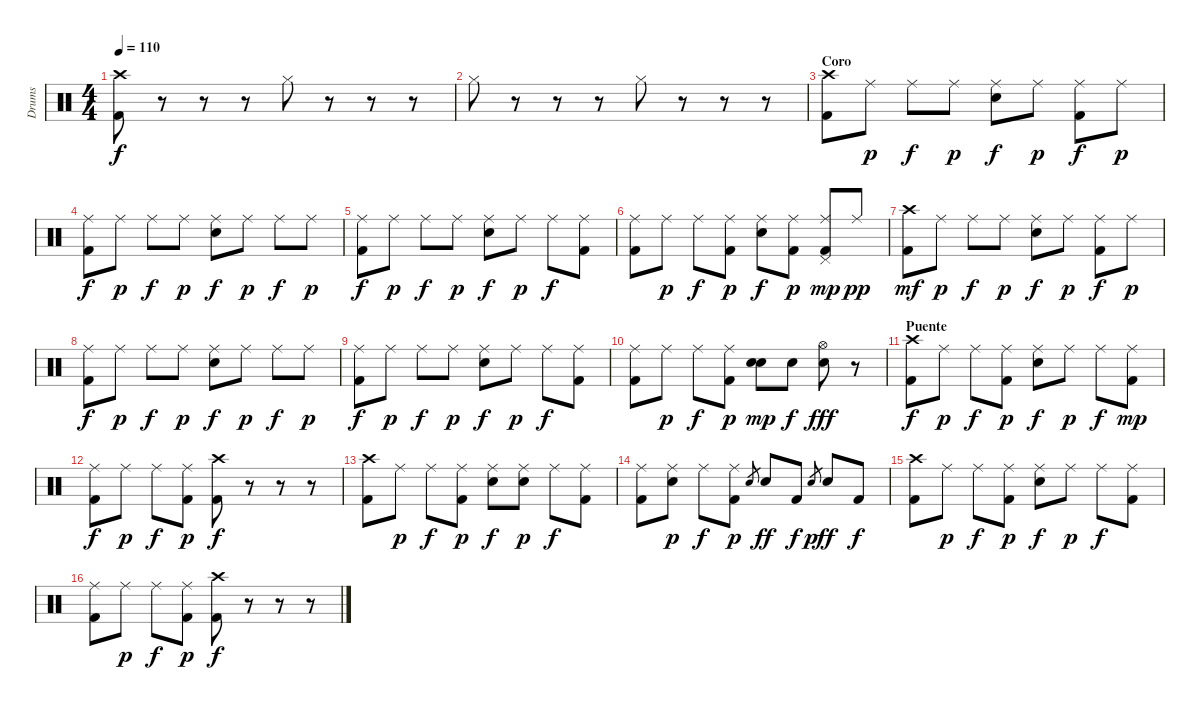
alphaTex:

\track ("Drums" "Drums") {instrument percussion}
\staff {score}
\articulation defaults
\ts (4 4)
\tempo 110
\clef neutral
\ks c
("Crash high (hit)" "Kick (hit) 2").8{dy f} r.8 r.8 r.8 "Hi-Hat (closed)".8 r.8 r.8 r.8 |
"Hi-Hat (closed)".8 r.8 r.8 r.8 "Hi-Hat (closed)".8 r.8 r.8 r.8 |
\section ("" "Coro")
("Crash high (hit)" "Kick (hit) 2").8 "Ride (middle)".8{dy p} "Ride (middle)".8{dy f} "Ride (middle)".8{dy p} ("Ride (middle)" "Snare (hit) 2").8{dy f} "Ride (middle)".8{dy p} ("Ride (middle)" "Kick (hit) 2").8{dy f} "Ride (middle)".8{dy p} |
("Ride (middle)" "Kick (hit) 2").8{dy f} "Ride (middle)".8{dy p} "Ride (middle)".8{dy f} "Ride (middle)".8{dy p} ("Ride (middle)" "Snare (hit) 2").8{dy f} "Ride (middle)".8{dy p} "Ride (middle)".8{dy f} "Ride (middle)".8{dy p} |
("Ride (middle)" "Kick (hit) 2").8{dy f} "Ride (middle)".8{dy p} "Ride (middle)".8{dy f} "Ride (middle)".8{dy p} ("Ride (middle)" "Snare (hit) 2").8{dy f} "Ride (middle)".8{dy p} "Ride (middle)".8{dy f} ("Ride (middle)" "Kick (hit) 2").8 |
("Ride (middle)" "Kick (hit) 2").8 "Ride (middle)".8{dy p} "Ride (middle)".8{dy f} ("Ride (middle)" "Kick (hit) 2").8{dy p} ("Ride (middle)" "Snare (hit) 2").8{dy f} ("Ride (middle)" "Kick (hit) 2").8{dy p} ("Pedal Hi-Hat (hit)" "Ride (middle)" "Kick (hit) 2").8{dy mp} "Ride (middle)".8{dy pp} |
("Crash high (hit)" "Kick (hit) 2").8{dy mf} "Ride (middle)".8{dy p} "Ride (middle)".8{dy f} "Ride (middle)".8{dy p} ("Ride (middle)" "Snare (hit) 2").8{dy f} "Ride (middle)".8{dy p} ("Ride (middle)" "Kick (hit) 2").8{dy f} "Ride (middle)".8{dy p} |
("Ride (middle)" "Kick (hit) 2").8{dy f} "Ride (middle)".8{dy p} "Ride (middle)".8{dy f} "Ride (middle)".8{dy p} ("Ride (middle)" "Snare (hit) 2").8{dy f} "Ride (middle)".8{dy p} "Ride (middle)".8{dy f} "Ride (middle)".8{dy p} |
("Ride (middle)" "Kick (hit) 2").8{dy f} "Ride (middle)".8{dy p} "Ride (middle)".8{dy f} "Ride (middle)".8{dy p} ("Ride (middle)" "Snare (hit) 2").8{dy f} "Ride (middle)".8{dy p} "Ride (middle)".8{dy f} ("Ride (middle)" "Kick (hit) 2").8 |
("Ride (middle)" "Kick (hit) 2").8 "Ride (middle)".8{dy p} "Ride (middle)".8{dy f} ("Ride (middle)" "Kick (hit) 2").8{dy p} ("Snare (hit) 2" "Snare (hit) 2").8{bd 60 dy mp} "Snare (hit) 2".8{dy f} ("Hi-Hat (open)" "Snare (hit) 2").8{dy fff} r.8 |
\section ("" "Puente")
("Crash high (hit)" "Kick (hit) 2").8{dy f} "Ride (middle)".8{dy p} "Ride (middle)".8{dy f} ("Ride (middle)" "Kick (hit) 2").8{dy p} ("Ride (middle)" "Snare (hit) 2").8{dy f} "Ride (middle)".8{dy p} "Ride (middle)".8{dy f} ("Ride (middle)" "Kick (hit) 2").8{dy mp} |
("Ride (middle)" "Kick (hit) 2").8{dy f} "Ride (middle)".8{dy p} "Ride (middle)".8{dy f} ("Ride (middle)" "Kick (hit) 2").8{dy p} ("Crash high (hit)" "Kick (hit) 2").8{dy f} r.8 r.8 r.8 |
("Crash high (hit)" "Kick (hit) 2").8 "Ride (middle)".8{dy p} "Ride (middle)".8{dy f} ("Ride (middle)" "Kick (hit) 2").8{dy p} ("Ride (middle)" "Snare (hit) 2").8{dy f} ("Ride (middle)" "Snare (hit) 2").8{dy p} "Ride (middle)".8{dy f} ("Ride (middle)" "Kick (hit) 2").8 |
("Ride (middle)" "Kick (hit) 2").8 ("Ride (middle)" "Snare (hit) 2").8{dy p} "Ride (middle)".8{dy f} ("Ride (middle)" "Kick (hit) 2").8{dy p} "Snare (hit) 2".8{gr} "Snare (hit) 2".8{dy ff} "Kick (hit) 2".8{dy f} "Snare (hit) 2".8{gr dy p} "Snare (hit) 2".8{dy ff} "Kick (hit) 2".8{dy f} |
("Crash high (hit)" "Kick (hit) 2").8 "Ride (middle)".8{dy p} "Ride (middle)".8{dy f} ("Ride (middle)" "Kick (hit) 2").8{dy p} ("Ride (middle)" "Snare (hit) 2").8{dy f} "Ride (middle)".8{dy p} "Ride (middle)".8{dy f} ("Ride (middle)" "Kick (hit) 2").8 |
("Ride (middle)" "Kick (hit) 2").8 "Ride (middle)".8{dy p} "Ride (middle)".8{dy f} ("Ride (middle)" "Kick (hit) 2").8{dy p} ("Crash high (hit)" "Kick (hit) 2").8{dy f} r.8 r.8 r.8
